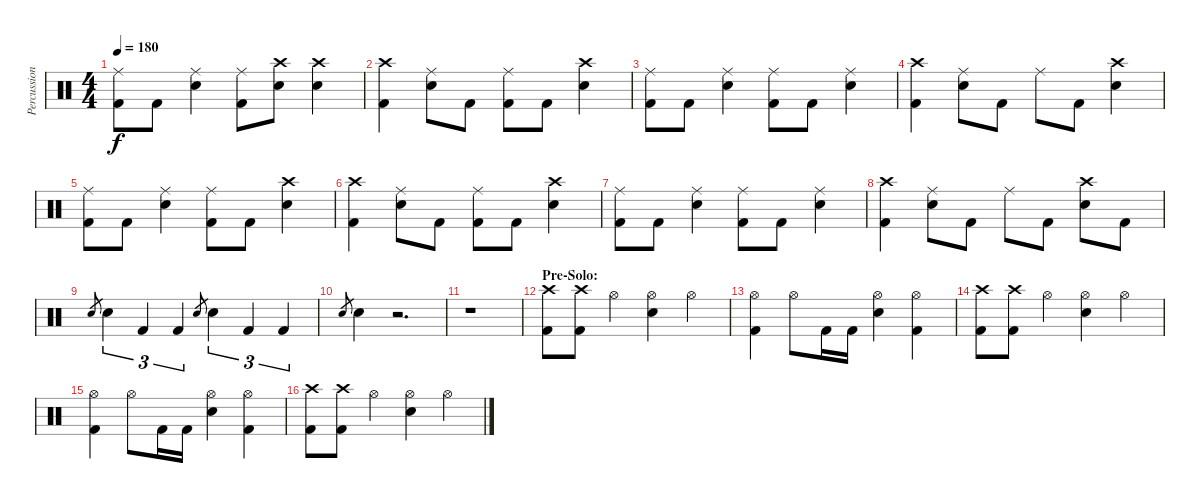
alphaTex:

\track ("Percussion" "Percussion") {instrument percussion}
\staff {score}
\articulation defaults
\ts (4 4)
\tempo 180
\clef neutral
\ks c
("Ride (middle)" "Kick (hit) 2").8{dy f} "Kick (hit) 2".8 ("Ride (middle)" "Snare (hit) 2").4 ("Ride (middle)" "Kick (hit) 2").8 ("Crash high (hit)" "Snare (hit) 2").8 ("Crash high (hit)" "Snare (hit) 2").4 |
("Crash high (hit)" "Kick (hit) 2").4 ("Ride (middle)" "Snare (hit) 2").8 "Kick (hit) 2".8 ("Ride (middle)" "Kick (hit) 2").8 "Kick (hit) 2".8 ("Crash high (hit)" "Snare (hit) 2").4 |
("Ride (middle)" "Kick (hit) 2").8 "Kick (hit) 2".8 ("Ride (middle)" "Snare (hit) 2").4 ("Ride (middle)" "Kick (hit) 2").8 "Kick (hit) 2".8 ("Ride (middle)" "Snare (hit) 2").4 |
("Crash high (hit)" "Kick (hit) 2").4 ("Ride (middle)" "Snare (hit) 2").8 "Kick (hit) 2".8 "Ride (middle)".8 "Kick (hit) 2".8 ("Crash high (hit)" "Snare (hit) 2").4 |
("Ride (middle)" "Kick (hit) 2").8 "Kick (hit) 2".8 ("Ride (middle)" "Snare (hit) 2").4 ("Ride (middle)" "Kick (hit) 2").8 "Kick (hit) 2".8 ("Crash high (hit)" "Snare (hit) 2").4 |
("Crash high (hit)" "Kick (hit) 2").4 ("Ride (middle)" "Snare (hit) 2").8 "Kick (hit) 2".8 ("Ride (middle)" "Kick (hit) 2").8 "Kick (hit) 2".8 ("Crash high (hit)" "Snare (hit) 2").4 |
("Ride (middle)" "Kick (hit) 2").8 "Kick (hit) 2".8 ("Ride (middle)" "Snare (hit) 2").4 ("Ride (middle)" "Kick (hit) 2").8 "Kick (hit) 2".8 ("Ride (middle)" "Snare (hit) 2").4 |
("Crash high (hit)" "Kick (hit) 2").4 ("Ride (middle)" "Snare (hit) 2").8 "Kick (hit) 2".8 "Ride (middle)".8 "Kick (hit) 2".8 ("Crash high (hit)" "Snare (hit) 2").8 "Kick (hit) 2".8 |
"Snare (hit) 2".8{gr} "Snare (hit) 2".4{tu (3 2)} "Kick (hit) 2".4{tu (3 2)} "Kick (hit) 2".4{tu (3 2)} "Snare (hit) 2".8{gr} "Snare (hit) 2".4{tu (3 2)} "Kick (hit) 2".4{tu (3 2)} "Kick (hit) 2".4{tu (3 2)} |
"Snare (hit) 2".8{gr} "Snare (hit) 2".4 r.2{d} |
r.1 |
\section ("" "Pre-Solo:")
("Crash high (hit)" "Kick (hit) 2").8 ("Crash high (hit)" "Kick (hit) 2").8 "Hi-Hat (open)".4 ("Hi-Hat (open)" "Snare (hit) 2").4 "Hi-Hat (open)".4 |
("Hi-Hat (open)" "Kick (hit) 2").4 "Hi-Hat (open)".8 "Kick (hit) 2".16 "Kick (hit) 2".16 ("Hi-Hat (open)" "Snare (hit) 2").4 ("Hi-Hat (open)" "Kick (hit) 2").4 |
("Crash high (hit)" "Kick (hit) 2").8 ("Crash high (hit)" "Kick (hit) 2").8 "Hi-Hat (open)".4 ("Hi-Hat (open)" "Snare (hit) 2").4 "Hi-Hat (open)".4 |
("Hi-Hat (open)" "Kick (hit) 2").4 "Hi-Hat (open)".8 "Kick (hit) 2".16 "Kick (hit) 2".16 ("Hi-Hat (open)" "Snare (hit) 2").4 ("Hi-Hat (open)" "Kick (hit) 2").4 |
("Crash high (hit)" "Kick (hit) 2").8 ("Crash high (hit)" "Kick (hit) 2").8 "Hi-Hat (open)".4 ("Hi-Hat (open)" "Snare (hit) 2").4 "Hi-Hat (open)".4
